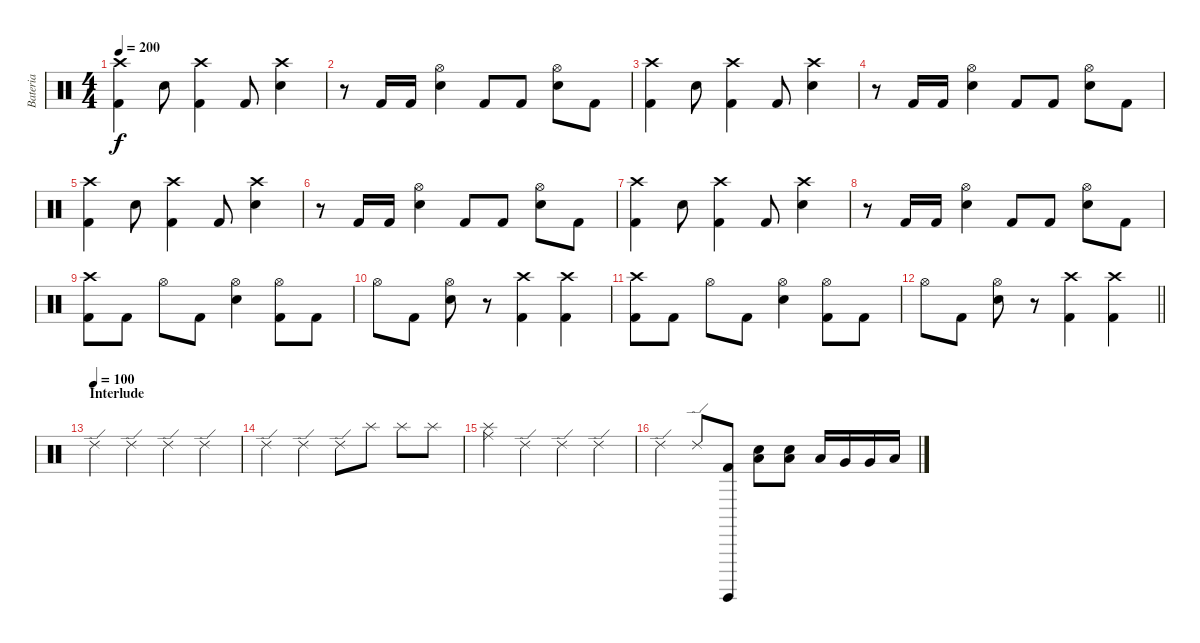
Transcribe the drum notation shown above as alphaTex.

\track ("Bateria" "Bateria") {instrument percussion}
\staff {score}
\articulation defaults
\ts (4 4)
\tempo 200
\clef neutral
\ks c
("Crash high (hit)" "Kick (hit) 2").4{dy f} "Electric Snare (hit)".8 ("Crash high (hit)" "Kick (hit) 2").4 "Kick (hit) 2".8 ("Crash high (hit)" "Electric Snare (hit)").4 |
r.8 "Kick (hit) 2".16 "Kick (hit) 2".16 ("Hi-Hat (open)" "Electric Snare (hit)").4 "Kick (hit) 2".8 "Kick (hit) 2".8 ("Hi-Hat (open)" "Electric Snare (hit)").8 "Kick (hit) 2".8 |
("Crash high (hit)" "Kick (hit) 2").4 "Electric Snare (hit)".8 ("Crash high (hit)" "Kick (hit) 2").4 "Kick (hit) 2".8 ("Crash high (hit)" "Electric Snare (hit)").4 |
r.8 "Kick (hit) 2".16 "Kick (hit) 2".16 ("Hi-Hat (open)" "Electric Snare (hit)").4 "Kick (hit) 2".8 "Kick (hit) 2".8 ("Hi-Hat (open)" "Electric Snare (hit)").8 "Kick (hit) 2".8 |
("Crash high (hit)" "Kick (hit) 2").4 "Electric Snare (hit)".8 ("Crash high (hit)" "Kick (hit) 2").4 "Kick (hit) 2".8 ("Crash high (hit)" "Electric Snare (hit)").4 |
r.8 "Kick (hit) 2".16 "Kick (hit) 2".16 ("Hi-Hat (open)" "Electric Snare (hit)").4 "Kick (hit) 2".8 "Kick (hit) 2".8 ("Hi-Hat (open)" "Electric Snare (hit)").8 "Kick (hit) 2".8 |
("Crash high (hit)" "Kick (hit) 2").4 "Electric Snare (hit)".8 ("Crash high (hit)" "Kick (hit) 2").4 "Kick (hit) 2".8 ("Crash high (hit)" "Electric Snare (hit)").4 |
r.8 "Kick (hit) 2".16 "Kick (hit) 2".16 ("Hi-Hat (open)" "Electric Snare (hit)").4 "Kick (hit) 2".8 "Kick (hit) 2".8 ("Hi-Hat (open)" "Electric Snare (hit)").8 "Kick (hit) 2".8 |
("Crash high (hit)" "Kick (hit) 2").8 "Kick (hit) 2".8 "Hi-Hat (open)".8 "Kick (hit) 2".8 ("Hi-Hat (open)" "Electric Snare (hit)").4 ("Hi-Hat (open)" "Kick (hit) 2").8 "Kick (hit) 2".8 |
"Hi-Hat (open)".8 "Kick (hit) 2".8 ("Hi-Hat (open)" "Electric Snare (hit)").8 r.8 ("Crash high (hit)" "Kick (hit) 2").4 ("Crash high (hit)" "Kick (hit) 2").4 |
("Crash high (hit)" "Kick (hit) 2").8 "Kick (hit) 2".8 "Hi-Hat (open)".8 "Kick (hit) 2".8 ("Hi-Hat (open)" "Electric Snare (hit)").4 ("Hi-Hat (open)" "Kick (hit) 2").8 "Kick (hit) 2".8 |
\barLineRight lightlight "Hi-Hat (open)".8 "Kick (hit) 2".8
("Hi-Hat (open)" "Electric Snare (hit)").8 r.8 ("Crash high (hit)" "Kick (hit) 2").4 ("Crash high (hit)" "Kick (hit) 2").4 |
\section ("" "Interlude")
\tempo (100)
"Ride (edge) 2".4 "Ride (edge) 2".4 "Ride (edge) 2".4 "Ride (edge) 2".4 |
"Ride (edge) 2".4 "Ride (edge) 2".4 "Ride (edge) 2".8 "Splash (hit)".8 "Splash (hit)".8 "Splash (hit)".8 |
("Splash (hit)" "Ride (middle)").4 "Ride (edge) 2".4 "Ride (edge) 2".4 "Ride (edge) 2".4 |
"Ride (edge) 2".4 "Ride (edge) 2".8 ("Surdo (hit)" "Kick (hit) 2").8 ("Electric Snare (hit)" "Low Tom (hit)").8 ("Electric Snare (hit)" "Low Tom (hit)").8 "Low Tom (hit)".16 "Very Low Tom (hit)".16 "Very Low Tom (hit)".16 "Low Floor Tom (hit)".16
